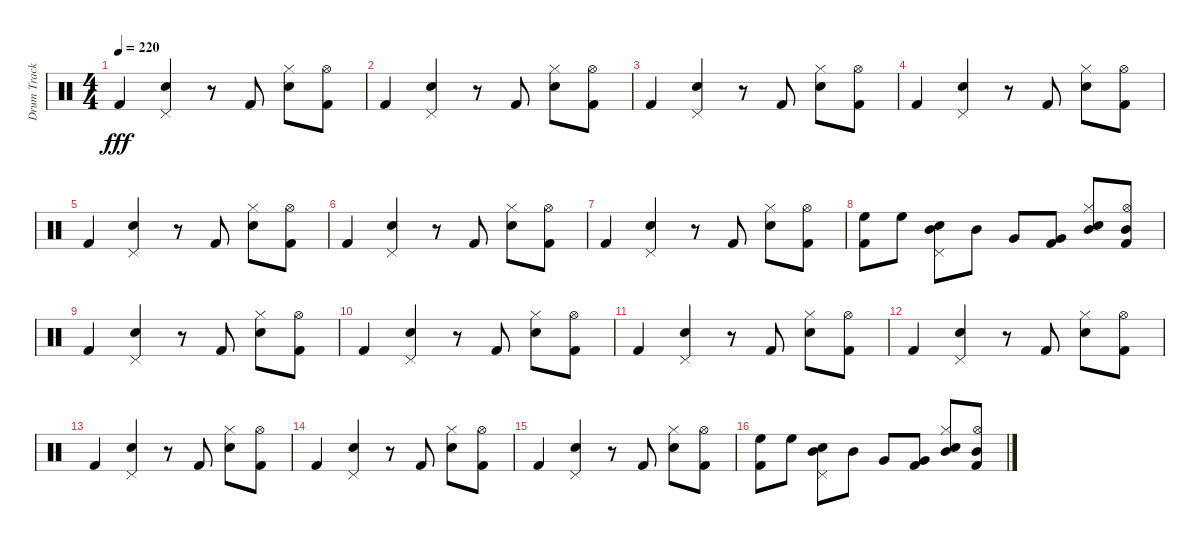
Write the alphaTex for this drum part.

\track ("Drum Track" "Drum Track") {instrument percussion}
\staff {score}
\articulation defaults
\ts (4 4)
\tempo 220
\clef neutral
\ks c "Kick (hit) 2".4{dy fff}
("Snare (hit) 2" "Pedal Hi-Hat (hit)").4 r.8 "Kick (hit) 2".8 ("Snare (hit) 2" "Hi-Hat (closed)").8 ("Kick (hit) 2" "Hi-Hat (open)").8 |
"Kick (hit) 2".4 ("Snare (hit) 2" "Pedal Hi-Hat (hit)").4 r.8 "Kick (hit) 2".8 ("Snare (hit) 2" "Hi-Hat (closed)").8 ("Kick (hit) 2" "Hi-Hat (open)").8 |
"Kick (hit) 2".4 ("Snare (hit) 2" "Pedal Hi-Hat (hit)").4 r.8 "Kick (hit) 2".8 ("Snare (hit) 2" "Hi-Hat (closed)").8 ("Kick (hit) 2" "Hi-Hat (open)").8 |
"Kick (hit) 2".4 ("Snare (hit) 2" "Pedal Hi-Hat (hit)").4 r.8 "Kick (hit) 2".8 ("Snare (hit) 2" "Hi-Hat (closed)").8 ("Kick (hit) 2" "Hi-Hat (open)").8 |
"Kick (hit) 2".4 ("Snare (hit) 2" "Pedal Hi-Hat (hit)").4 r.8 "Kick (hit) 2".8 ("Snare (hit) 2" "Hi-Hat (closed)").8 ("Kick (hit) 2" "Hi-Hat (open)").8 |
"Kick (hit) 2".4 ("Snare (hit) 2" "Pedal Hi-Hat (hit)").4 r.8 "Kick (hit) 2".8 ("Snare (hit) 2" "Hi-Hat (closed)").8 ("Kick (hit) 2" "Hi-Hat (open)").8 |
"Kick (hit) 2".4 ("Snare (hit) 2" "Pedal Hi-Hat (hit)").4 r.8 "Kick (hit) 2".8 ("Snare (hit) 2" "Hi-Hat (closed)").8 ("Kick (hit) 2" "Hi-Hat (open)").8 |
("Kick (hit) 2" "High Floor Tom (hit)").8 "High Floor Tom (hit)".8 ("Snare (hit) 2" "Pedal Hi-Hat (hit)" "Mid Tom (hit)").8 "Mid Tom (hit)".8 "Very Low Tom (hit)".8 ("Kick (hit) 2" "Very Low Tom (hit)").8 ("Snare (hit) 2" "Hi-Hat (closed)" "Mid Tom (hit)").8 ("Kick (hit) 2" "Hi-Hat (open)" "Mid Tom (hit)").8 |
"Kick (hit) 2".4 ("Snare (hit) 2" "Pedal Hi-Hat (hit)").4 r.8 "Kick (hit) 2".8 ("Snare (hit) 2" "Hi-Hat (closed)").8 ("Kick (hit) 2" "Hi-Hat (open)").8 |
"Kick (hit) 2".4 ("Snare (hit) 2" "Pedal Hi-Hat (hit)").4 r.8 "Kick (hit) 2".8 ("Snare (hit) 2" "Hi-Hat (closed)").8 ("Kick (hit) 2" "Hi-Hat (open)").8 |
"Kick (hit) 2".4 ("Snare (hit) 2" "Pedal Hi-Hat (hit)").4 r.8 "Kick (hit) 2".8 ("Snare (hit) 2" "Hi-Hat (closed)").8 ("Kick (hit) 2" "Hi-Hat (open)").8 |
"Kick (hit) 2".4 ("Snare (hit) 2" "Pedal Hi-Hat (hit)").4 r.8 "Kick (hit) 2".8 ("Snare (hit) 2" "Hi-Hat (closed)").8 ("Kick (hit) 2" "Hi-Hat (open)").8 |
"Kick (hit) 2".4 ("Snare (hit) 2" "Pedal Hi-Hat (hit)").4 r.8 "Kick (hit) 2".8 ("Snare (hit) 2" "Hi-Hat (closed)").8 ("Kick (hit) 2" "Hi-Hat (open)").8 |
"Kick (hit) 2".4 ("Snare (hit) 2" "Pedal Hi-Hat (hit)").4 r.8 "Kick (hit) 2".8 ("Snare (hit) 2" "Hi-Hat (closed)").8 ("Kick (hit) 2" "Hi-Hat (open)").8 |
"Kick (hit) 2".4 ("Snare (hit) 2" "Pedal Hi-Hat (hit)").4 r.8 "Kick (hit) 2".8 ("Snare (hit) 2" "Hi-Hat (closed)").8 ("Kick (hit) 2" "Hi-Hat (open)").8 |
("Kick (hit) 2" "High Floor Tom (hit)").8 "High Floor Tom (hit)".8 ("Snare (hit) 2" "Pedal Hi-Hat (hit)" "Mid Tom (hit)").8 "Mid Tom (hit)".8 "Very Low Tom (hit)".8 ("Kick (hit) 2" "Very Low Tom (hit)").8 ("Snare (hit) 2" "Hi-Hat (closed)" "Mid Tom (hit)").8 ("Kick (hit) 2" "Hi-Hat (open)" "Mid Tom (hit)").8
